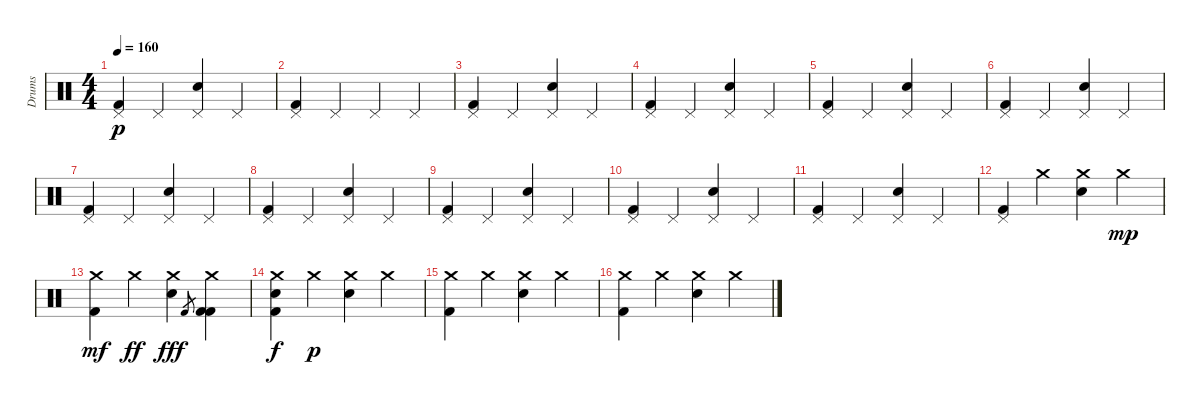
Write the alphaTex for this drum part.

\track ("Drums" "Drums") {instrument percussion}
\staff {score}
\articulation defaults
\ts (4 4)
\tempo 160
\clef neutral
\ks c
("Pedal Hi-Hat (hit)" "Kick (hit) 2").4{dy p} "Pedal Hi-Hat (hit)".4 ("Pedal Hi-Hat (hit)" "Snare (hit) 2").4 "Pedal Hi-Hat (hit)".4 |
("Pedal Hi-Hat (hit)" "Kick (hit) 2").4 "Pedal Hi-Hat (hit)".4 "Pedal Hi-Hat (hit)".4 "Pedal Hi-Hat (hit)".4 |
("Pedal Hi-Hat (hit)" "Kick (hit) 2").4 "Pedal Hi-Hat (hit)".4 ("Pedal Hi-Hat (hit)" "Snare (hit) 2").4 "Pedal Hi-Hat (hit)".4 |
("Pedal Hi-Hat (hit)" "Kick (hit) 2").4 "Pedal Hi-Hat (hit)".4 ("Pedal Hi-Hat (hit)" "Snare (hit) 2").4 "Pedal Hi-Hat (hit)".4 |
("Pedal Hi-Hat (hit)" "Kick (hit) 2").4 "Pedal Hi-Hat (hit)".4 ("Pedal Hi-Hat (hit)" "Snare (hit) 2").4 "Pedal Hi-Hat (hit)".4 |
("Pedal Hi-Hat (hit)" "Kick (hit) 2").4 "Pedal Hi-Hat (hit)".4 ("Pedal Hi-Hat (hit)" "Snare (hit) 2").4 "Pedal Hi-Hat (hit)".4 |
("Pedal Hi-Hat (hit)" "Kick (hit) 2").4 "Pedal Hi-Hat (hit)".4 ("Pedal Hi-Hat (hit)" "Snare (hit) 2").4 "Pedal Hi-Hat (hit)".4 |
("Pedal Hi-Hat (hit)" "Kick (hit) 2").4 "Pedal Hi-Hat (hit)".4 ("Pedal Hi-Hat (hit)" "Snare (hit) 2").4 "Pedal Hi-Hat (hit)".4 |
("Pedal Hi-Hat (hit)" "Kick (hit) 2").4 "Pedal Hi-Hat (hit)".4 ("Pedal Hi-Hat (hit)" "Snare (hit) 2").4 "Pedal Hi-Hat (hit)".4 |
("Pedal Hi-Hat (hit)" "Kick (hit) 2").4 "Pedal Hi-Hat (hit)".4 ("Pedal Hi-Hat (hit)" "Snare (hit) 2").4 "Pedal Hi-Hat (hit)".4 |
("Pedal Hi-Hat (hit)" "Kick (hit) 2").4 "Pedal Hi-Hat (hit)".4 ("Pedal Hi-Hat (hit)" "Snare (hit) 2").4 "Pedal Hi-Hat (hit)".4 |
("Pedal Hi-Hat (hit)" "Kick (hit) 2").4 "Crash medium (hit)".4 ("Crash medium (hit)" "Snare (hit) 2").4 "Crash medium (hit)".4{dy mp} |
("Crash medium (hit)" "Kick (hit) 2").4{dy mf} "Crash medium (hit)".4{dy ff} ("Crash medium (hit)" "Snare (hit) 2").4{dy fff} "Kick (hit) 2".8{gr} ("Crash medium (hit)" "Kick (hit) 2" "Kick (hit) 2").4 |
("Crash medium (hit)" "Kick (hit) 2" "Snare (hit) 2").4{dy f volume 16} "Crash medium (hit)".4{dy p} ("Crash medium (hit)" "Snare (hit) 2").4 "Crash medium (hit)".4 |
("Crash medium (hit)" "Kick (hit) 2").4 "Crash medium (hit)".4 ("Crash medium (hit)" "Snare (hit) 2").4 "Crash medium (hit)".4 |
("Crash medium (hit)" "Kick (hit) 2").4 "Crash medium (hit)".4 ("Crash medium (hit)" "Snare (hit) 2").4 "Crash medium (hit)".4
